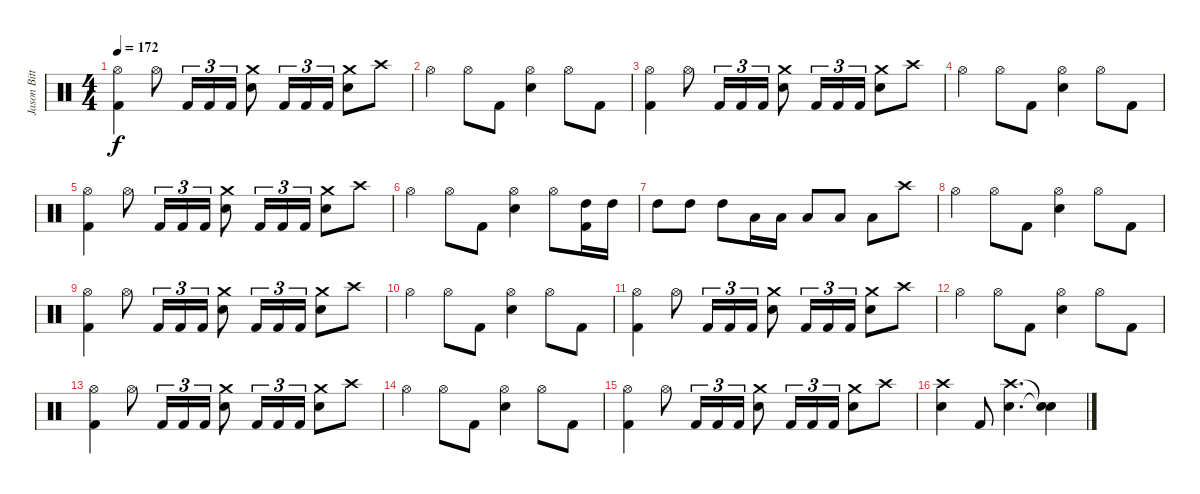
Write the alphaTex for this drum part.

\track ("Jason Bittner" "Jason Bitt") {instrument percussion}
\staff {score}
\articulation defaults
\ts (4 4)
\tempo 172
\clef neutral
\ks c
("Hi-Hat (open)" "Kick (hit) 2").4{dy f} "Hi-Hat (open)".8 "Kick (hit) 2".16{tu (3 2)} "Kick (hit) 2".16{tu (3 2)} "Kick (hit) 2".16{tu (3 2)} ("Crash medium (hit)" "Electric Snare (hit)").8 "Kick (hit) 2".16{tu (3 2)} "Kick (hit) 2".16{tu (3 2)} "Kick (hit) 2".16{tu (3 2)} ("Crash medium (hit)" "Electric Snare (hit)").8 "Crash high (hit)".8 |
"Hi-Hat (open)".4 "Hi-Hat (open)".8 "Kick (hit) 2".8 ("Hi-Hat (open)" "Electric Snare (hit)").4 "Hi-Hat (open)".8 "Kick (hit) 2".8 |
("Hi-Hat (open)" "Kick (hit) 2").4 "Hi-Hat (open)".8 "Kick (hit) 2".16{tu (3 2)} "Kick (hit) 2".16{tu (3 2)} "Kick (hit) 2".16{tu (3 2)} ("Crash medium (hit)" "Electric Snare (hit)").8 "Kick (hit) 2".16{tu (3 2)} "Kick (hit) 2".16{tu (3 2)} "Kick (hit) 2".16{tu (3 2)} ("Crash medium (hit)" "Electric Snare (hit)").8 "Crash high (hit)".8 |
"Hi-Hat (open)".4 "Hi-Hat (open)".8 "Kick (hit) 2".8 ("Hi-Hat (open)" "Electric Snare (hit)").4 "Hi-Hat (open)".8 "Kick (hit) 2".8 |
("Hi-Hat (open)" "Kick (hit) 2").4 "Hi-Hat (open)".8 "Kick (hit) 2".16{tu (3 2)} "Kick (hit) 2".16{tu (3 2)} "Kick (hit) 2".16{tu (3 2)} ("Crash medium (hit)" "Electric Snare (hit)").8 "Kick (hit) 2".16{tu (3 2)} "Kick (hit) 2".16{tu (3 2)} "Kick (hit) 2".16{tu (3 2)} ("Crash medium (hit)" "Electric Snare (hit)").8 "Crash high (hit)".8 |
"Hi-Hat (open)".4 "Hi-Hat (open)".8 "Kick (hit) 2".8 ("Hi-Hat (open)" "Electric Snare (hit)").4 "Hi-Hat (open)".8 ("High Tom (hit)" "Kick (hit) 2").16 "High Tom (hit)".16 |
"High Tom (hit)".8 "High Tom (hit)".8 "High Tom (hit)".8 "Low Tom (hit)".16 "Low Tom (hit)".16 "Low Tom (hit)".8 "Low Tom (hit)".8 "Low Tom (hit)".8 "Crash high (hit)".8 |
"Hi-Hat (open)".4 "Hi-Hat (open)".8 "Kick (hit) 2".8 ("Hi-Hat (open)" "Electric Snare (hit)").4 "Hi-Hat (open)".8 "Kick (hit) 2".8 |
("Hi-Hat (open)" "Kick (hit) 2").4 "Hi-Hat (open)".8 "Kick (hit) 2".16{tu (3 2)} "Kick (hit) 2".16{tu (3 2)} "Kick (hit) 2".16{tu (3 2)} ("Crash medium (hit)" "Electric Snare (hit)").8 "Kick (hit) 2".16{tu (3 2)} "Kick (hit) 2".16{tu (3 2)} "Kick (hit) 2".16{tu (3 2)} ("Crash medium (hit)" "Electric Snare (hit)").8 "Crash high (hit)".8 |
"Hi-Hat (open)".4 "Hi-Hat (open)".8 "Kick (hit) 2".8 ("Hi-Hat (open)" "Electric Snare (hit)").4 "Hi-Hat (open)".8 "Kick (hit) 2".8 |
("Hi-Hat (open)" "Kick (hit) 2").4 "Hi-Hat (open)".8 "Kick (hit) 2".16{tu (3 2)} "Kick (hit) 2".16{tu (3 2)} "Kick (hit) 2".16{tu (3 2)} ("Crash medium (hit)" "Electric Snare (hit)").8 "Kick (hit) 2".16{tu (3 2)} "Kick (hit) 2".16{tu (3 2)} "Kick (hit) 2".16{tu (3 2)} ("Crash medium (hit)" "Electric Snare (hit)").8 "Crash high (hit)".8 |
"Hi-Hat (open)".4 "Hi-Hat (open)".8 "Kick (hit) 2".8 ("Hi-Hat (open)" "Electric Snare (hit)").4 "Hi-Hat (open)".8 "Kick (hit) 2".8 |
("Hi-Hat (open)" "Kick (hit) 2").4 "Hi-Hat (open)".8 "Kick (hit) 2".16{tu (3 2)} "Kick (hit) 2".16{tu (3 2)} "Kick (hit) 2".16{tu (3 2)} ("Crash medium (hit)" "Electric Snare (hit)").8 "Kick (hit) 2".16{tu (3 2)} "Kick (hit) 2".16{tu (3 2)} "Kick (hit) 2".16{tu (3 2)} ("Crash medium (hit)" "Electric Snare (hit)").8 "Crash high (hit)".8 |
"Hi-Hat (open)".4 "Hi-Hat (open)".8 "Kick (hit) 2".8 ("Hi-Hat (open)" "Electric Snare (hit)").4 "Hi-Hat (open)".8 "Kick (hit) 2".8 |
("Hi-Hat (open)" "Kick (hit) 2").4 "Hi-Hat (open)".8 "Kick (hit) 2".16{tu (3 2)} "Kick (hit) 2".16{tu (3 2)} "Kick (hit) 2".16{tu (3 2)} ("Crash medium (hit)" "Electric Snare (hit)").8 "Kick (hit) 2".16{tu (3 2)} "Kick (hit) 2".16{tu (3 2)} "Kick (hit) 2".16{tu (3 2)} ("Crash medium (hit)" "Electric Snare (hit)").8 "Crash high (hit)".8 |
("Crash high (hit)" "Electric Snare (hit)").4 "Kick (hit) 2".8 ("Crash high (hit)" "Electric Snare (hit)").4{d} ("Snare (hit)"{t} "Snare (hit)"{t}).4
